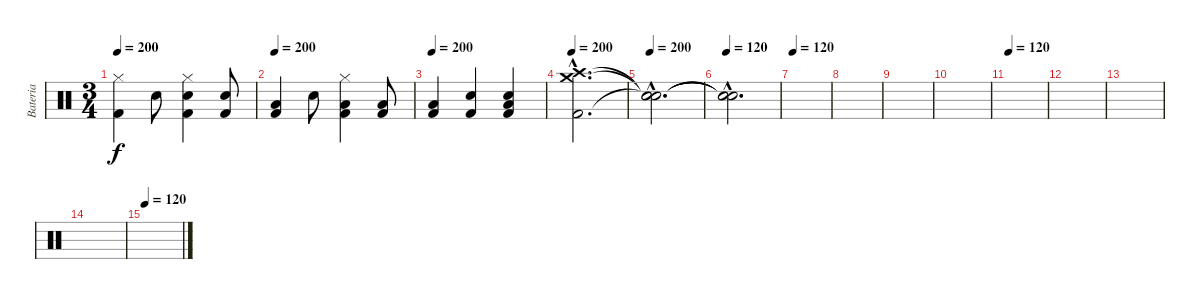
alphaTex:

\track ("Bateria" "Bateria") {instrument percussion}
\staff {score}
\articulation defaults
\ts (3 4)
\tempo 200
\clef neutral
\ks c
("Hi-Hat (closed)" "Kick (hit) 2").4{dy f} "Electric Snare (hit)".8 ("Hi-Hat (closed)" "Electric Snare (hit)" "Kick (hit) 2").4 ("Electric Snare (hit)" "Kick (hit) 2").8 |
\tempo 200
("Low Tom (hit)" "Kick (hit) 2").4 "Electric Snare (hit)".8 ("Hi-Hat (closed)" "Low Tom (hit)" "Kick (hit) 2").4 ("Low Tom (hit)" "Kick (hit) 2").8 |
\tempo 200
("Low Tom (hit)" "Kick (hit) 2").4 ("Electric Snare (hit)" "Kick (hit) 2").4 ("Electric Snare (hit)" "Low Tom (hit)" "Kick (hit) 2").4 |
\tempo 200
("Crash medium (hit)"{hac} "Crash high (hit)"{hac} "Kick (hit) 2"{hac}).2{d} |
\tempo 200
("Snare (hit)"{hac t} "Snare (hit)"{hac t} "Snare (hit)"{hac t}).2{d} |
\tempo 120
("Snare (hit)"{hac t} "Snare (hit)"{hac t} "Snare (hit)"{hac t}).2{d} |
\tempo 120
|
|
|
|
\tempo 120
|
|
|
|
\tempo 120
